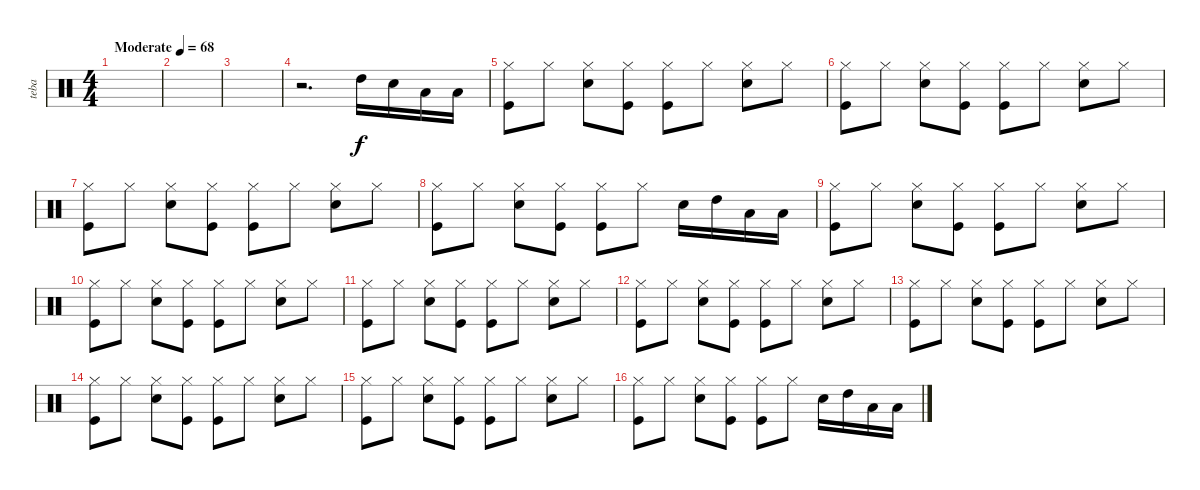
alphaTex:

\track ("teba" "teba") {instrument percussion}
\staff {score}
\articulation defaults
\ts (4 4)
\tempo (68 "Moderate")
\clef neutral
\ks c
|
|
|
r.2{d} "High Tom (hit)".16 "Snare (hit) 2".16 "Low Tom (hit)".16 "Low Floor Tom (hit)".16 |
("Hi-Hat (closed)" "Kick (hit)").8 "Hi-Hat (closed)".8 ("Hi-Hat (closed)" "Electric Snare (hit)").8 ("Hi-Hat (closed)" "Kick (hit)").8 ("Hi-Hat (closed)" "Kick (hit)").8 "Hi-Hat (closed)".8 ("Hi-Hat (closed)" "Electric Snare (hit)").8 "Hi-Hat (closed)".8 |
("Hi-Hat (closed)" "Kick (hit)").8 "Hi-Hat (closed)".8 ("Hi-Hat (closed)" "Electric Snare (hit)").8 ("Hi-Hat (closed)" "Kick (hit)").8 ("Hi-Hat (closed)" "Kick (hit)").8 "Hi-Hat (closed)".8 ("Hi-Hat (closed)" "Electric Snare (hit)").8 "Hi-Hat (closed)".8 |
("Hi-Hat (closed)" "Kick (hit)").8 "Hi-Hat (closed)".8 ("Hi-Hat (closed)" "Electric Snare (hit)").8 ("Hi-Hat (closed)" "Kick (hit)").8 ("Hi-Hat (closed)" "Kick (hit)").8 "Hi-Hat (closed)".8 ("Hi-Hat (closed)" "Electric Snare (hit)").8 "Hi-Hat (closed)".8 |
("Hi-Hat (closed)" "Kick (hit)").8 "Hi-Hat (closed)".8 ("Hi-Hat (closed)" "Electric Snare (hit)").8 ("Hi-Hat (closed)" "Kick (hit)").8 ("Hi-Hat (closed)" "Kick (hit)").8 "Hi-Hat (closed)".8 "Electric Snare (hit)".16 "High Tom (hit)".16 "Low Tom (hit)".16 "Low Floor Tom (hit)".16 |
("Hi-Hat (closed)" "Kick (hit)").8 "Hi-Hat (closed)".8 ("Hi-Hat (closed)" "Electric Snare (hit)").8 ("Hi-Hat (closed)" "Kick (hit)").8 ("Hi-Hat (closed)" "Kick (hit)").8 "Hi-Hat (closed)".8 ("Hi-Hat (closed)" "Electric Snare (hit)").8 "Hi-Hat (closed)".8 |
("Hi-Hat (closed)" "Kick (hit)").8 "Hi-Hat (closed)".8 ("Hi-Hat (closed)" "Electric Snare (hit)").8 ("Hi-Hat (closed)" "Kick (hit)").8 ("Hi-Hat (closed)" "Kick (hit)").8 "Hi-Hat (closed)".8 ("Hi-Hat (closed)" "Electric Snare (hit)").8 "Hi-Hat (closed)".8 |
("Hi-Hat (closed)" "Kick (hit)").8 "Hi-Hat (closed)".8 ("Hi-Hat (closed)" "Electric Snare (hit)").8 ("Hi-Hat (closed)" "Kick (hit)").8 ("Hi-Hat (closed)" "Kick (hit)").8 "Hi-Hat (closed)".8 ("Hi-Hat (closed)" "Electric Snare (hit)").8 "Hi-Hat (closed)".8 |
("Hi-Hat (closed)" "Kick (hit)").8 "Hi-Hat (closed)".8 ("Hi-Hat (closed)" "Electric Snare (hit)").8 ("Hi-Hat (closed)" "Kick (hit)").8 ("Hi-Hat (closed)" "Kick (hit)").8 "Hi-Hat (closed)".8 ("Hi-Hat (closed)" "Electric Snare (hit)").8 "Hi-Hat (closed)".8 |
("Hi-Hat (closed)" "Kick (hit)").8 "Hi-Hat (closed)".8 ("Hi-Hat (closed)" "Electric Snare (hit)").8 ("Hi-Hat (closed)" "Kick (hit)").8 ("Hi-Hat (closed)" "Kick (hit)").8 "Hi-Hat (closed)".8 ("Hi-Hat (closed)" "Electric Snare (hit)").8 "Hi-Hat (closed)".8 |
("Hi-Hat (closed)" "Kick (hit)").8 "Hi-Hat (closed)".8 ("Hi-Hat (closed)" "Electric Snare (hit)").8 ("Hi-Hat (closed)" "Kick (hit)").8 ("Hi-Hat (closed)" "Kick (hit)").8 "Hi-Hat (closed)".8 ("Hi-Hat (closed)" "Electric Snare (hit)").8 "Hi-Hat (closed)".8 |
("Hi-Hat (closed)" "Kick (hit)").8 "Hi-Hat (closed)".8 ("Hi-Hat (closed)" "Electric Snare (hit)").8 ("Hi-Hat (closed)" "Kick (hit)").8 ("Hi-Hat (closed)" "Kick (hit)").8 "Hi-Hat (closed)".8 ("Hi-Hat (closed)" "Electric Snare (hit)").8 "Hi-Hat (closed)".8 |
("Hi-Hat (closed)" "Kick (hit)").8 "Hi-Hat (closed)".8 ("Hi-Hat (closed)" "Electric Snare (hit)").8 ("Hi-Hat (closed)" "Kick (hit)").8 ("Hi-Hat (closed)" "Kick (hit)").8 "Hi-Hat (closed)".8 "Electric Snare (hit)".16 "High Tom (hit)".16 "Low Tom (hit)".16 "Low Floor Tom (hit)".16
